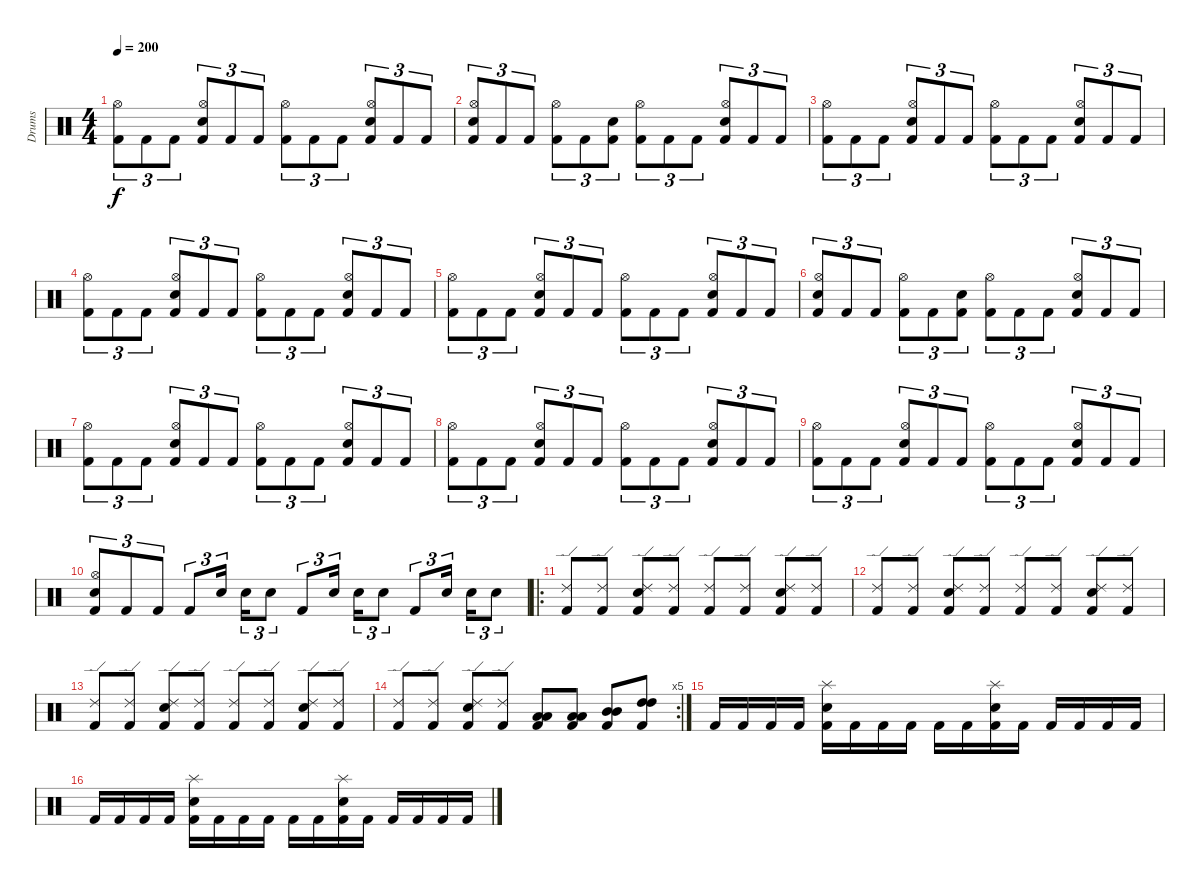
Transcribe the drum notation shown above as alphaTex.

\track ("Drums" "Drums") {instrument percussion}
\staff {score}
\articulation defaults
\ts (4 4)
\tempo 200
\clef neutral
\ks c
("Kick (hit) 2" "Hi-Hat (open)").8{tu (3 2) dy f} "Kick (hit) 2".8{tu (3 2)} "Kick (hit) 2".8{tu (3 2)} ("Kick (hit) 2" "Snare (hit) 2" "Hi-Hat (open)").8{tu (3 2)} "Kick (hit) 2".8{tu (3 2)} "Kick (hit) 2".8{tu (3 2)} ("Kick (hit) 2" "Hi-Hat (open)").8{tu (3 2)} "Kick (hit) 2".8{tu (3 2)} "Kick (hit) 2".8{tu (3 2)} ("Kick (hit) 2" "Snare (hit) 2" "Hi-Hat (open)").8{tu (3 2)} "Kick (hit) 2".8{tu (3 2)} "Kick (hit) 2".8{tu (3 2)} |
("Kick (hit) 2" "Snare (hit) 2" "Hi-Hat (open)").8{tu (3 2)} "Kick (hit) 2".8{tu (3 2)} "Kick (hit) 2".8{tu (3 2)} ("Kick (hit) 2" "Hi-Hat (open)").8{tu (3 2)} "Kick (hit) 2".8{tu (3 2)} ("Kick (hit) 2" "Snare (hit) 2").8{tu (3 2)} ("Kick (hit) 2" "Hi-Hat (open)").8{tu (3 2)} "Kick (hit) 2".8{tu (3 2)} "Kick (hit) 2".8{tu (3 2)} ("Kick (hit) 2" "Snare (hit) 2" "Hi-Hat (open)").8{tu (3 2)} "Kick (hit) 2".8{tu (3 2)} "Kick (hit) 2".8{tu (3 2)} |
("Kick (hit) 2" "Hi-Hat (open)").8{tu (3 2)} "Kick (hit) 2".8{tu (3 2)} "Kick (hit) 2".8{tu (3 2)} ("Kick (hit) 2" "Snare (hit) 2" "Hi-Hat (open)").8{tu (3 2)} "Kick (hit) 2".8{tu (3 2)} "Kick (hit) 2".8{tu (3 2)} ("Kick (hit) 2" "Hi-Hat (open)").8{tu (3 2)} "Kick (hit) 2".8{tu (3 2)} "Kick (hit) 2".8{tu (3 2)} ("Kick (hit) 2" "Snare (hit) 2" "Hi-Hat (open)").8{tu (3 2)} "Kick (hit) 2".8{tu (3 2)} "Kick (hit) 2".8{tu (3 2)} |
("Kick (hit) 2" "Hi-Hat (open)").8{tu (3 2)} "Kick (hit) 2".8{tu (3 2)} "Kick (hit) 2".8{tu (3 2)} ("Kick (hit) 2" "Snare (hit) 2" "Hi-Hat (open)").8{tu (3 2)} "Kick (hit) 2".8{tu (3 2)} "Kick (hit) 2".8{tu (3 2)} ("Kick (hit) 2" "Hi-Hat (open)").8{tu (3 2)} "Kick (hit) 2".8{tu (3 2)} "Kick (hit) 2".8{tu (3 2)} ("Kick (hit) 2" "Snare (hit) 2" "Hi-Hat (open)").8{tu (3 2)} "Kick (hit) 2".8{tu (3 2)} "Kick (hit) 2".8{tu (3 2)} |
("Kick (hit) 2" "Hi-Hat (open)").8{tu (3 2)} "Kick (hit) 2".8{tu (3 2)} "Kick (hit) 2".8{tu (3 2)} ("Kick (hit) 2" "Snare (hit) 2" "Hi-Hat (open)").8{tu (3 2)} "Kick (hit) 2".8{tu (3 2)} "Kick (hit) 2".8{tu (3 2)} ("Kick (hit) 2" "Hi-Hat (open)").8{tu (3 2)} "Kick (hit) 2".8{tu (3 2)} "Kick (hit) 2".8{tu (3 2)} ("Kick (hit) 2" "Snare (hit) 2" "Hi-Hat (open)").8{tu (3 2)} "Kick (hit) 2".8{tu (3 2)} "Kick (hit) 2".8{tu (3 2)} |
("Kick (hit) 2" "Snare (hit) 2" "Hi-Hat (open)").8{tu (3 2)} "Kick (hit) 2".8{tu (3 2)} "Kick (hit) 2".8{tu (3 2)} ("Kick (hit) 2" "Hi-Hat (open)").8{tu (3 2)} "Kick (hit) 2".8{tu (3 2)} ("Kick (hit) 2" "Snare (hit) 2").8{tu (3 2)} ("Kick (hit) 2" "Hi-Hat (open)").8{tu (3 2)} "Kick (hit) 2".8{tu (3 2)} "Kick (hit) 2".8{tu (3 2)} ("Kick (hit) 2" "Snare (hit) 2" "Hi-Hat (open)").8{tu (3 2)} "Kick (hit) 2".8{tu (3 2)} "Kick (hit) 2".8{tu (3 2)} |
("Kick (hit) 2" "Hi-Hat (open)").8{tu (3 2)} "Kick (hit) 2".8{tu (3 2)} "Kick (hit) 2".8{tu (3 2)} ("Kick (hit) 2" "Snare (hit) 2" "Hi-Hat (open)").8{tu (3 2)} "Kick (hit) 2".8{tu (3 2)} "Kick (hit) 2".8{tu (3 2)} ("Kick (hit) 2" "Hi-Hat (open)").8{tu (3 2)} "Kick (hit) 2".8{tu (3 2)} "Kick (hit) 2".8{tu (3 2)} ("Kick (hit) 2" "Snare (hit) 2" "Hi-Hat (open)").8{tu (3 2)} "Kick (hit) 2".8{tu (3 2)} "Kick (hit) 2".8{tu (3 2)} |
("Kick (hit) 2" "Hi-Hat (open)").8{tu (3 2)} "Kick (hit) 2".8{tu (3 2)} "Kick (hit) 2".8{tu (3 2)} ("Kick (hit) 2" "Snare (hit) 2" "Hi-Hat (open)").8{tu (3 2)} "Kick (hit) 2".8{tu (3 2)} "Kick (hit) 2".8{tu (3 2)} ("Kick (hit) 2" "Hi-Hat (open)").8{tu (3 2)} "Kick (hit) 2".8{tu (3 2)} "Kick (hit) 2".8{tu (3 2)} ("Kick (hit) 2" "Snare (hit) 2" "Hi-Hat (open)").8{tu (3 2)} "Kick (hit) 2".8{tu (3 2)} "Kick (hit) 2".8{tu (3 2)} |
("Kick (hit) 2" "Hi-Hat (open)").8{tu (3 2)} "Kick (hit) 2".8{tu (3 2)} "Kick (hit) 2".8{tu (3 2)} ("Kick (hit) 2" "Snare (hit) 2" "Hi-Hat (open)").8{tu (3 2)} "Kick (hit) 2".8{tu (3 2)} "Kick (hit) 2".8{tu (3 2)} ("Kick (hit) 2" "Hi-Hat (open)").8{tu (3 2)} "Kick (hit) 2".8{tu (3 2)} "Kick (hit) 2".8{tu (3 2)} ("Kick (hit) 2" "Snare (hit) 2" "Hi-Hat (open)").8{tu (3 2)} "Kick (hit) 2".8{tu (3 2)} "Kick (hit) 2".8{tu (3 2)} |
("Kick (hit) 2" "Snare (hit) 2" "Hi-Hat (open)").8{tu (3 2)} "Kick (hit) 2".8{tu (3 2)} "Kick (hit) 2".8{tu (3 2)} "Kick (hit) 2".8{tu (3 2)} "Snare (hit) 2".16{tu (3 2)} "Snare (hit) 2".16{tu (3 2)} "Snare (hit) 2".8{tu (3 2)} "Kick (hit) 2".8{tu (3 2)} "Snare (hit) 2".16{tu (3 2)} "Snare (hit) 2".16{tu (3 2)} "Snare (hit) 2".8{tu (3 2)} "Kick (hit) 2".8{tu (3 2)} "Snare (hit) 2".16{tu (3 2)} "Snare (hit) 2".16{tu (3 2)} "Snare (hit) 2".8{tu (3 2)} |
\ro
("Kick (hit) 2" "Ride (edge) 2").8 ("Kick (hit) 2" "Ride (edge) 2").8 ("Kick (hit) 2" "Snare (hit) 2" "Ride (edge) 2").8 ("Kick (hit) 2" "Ride (edge) 2").8 ("Kick (hit) 2" "Ride (edge) 2").8 ("Kick (hit) 2" "Ride (edge) 2").8 ("Kick (hit) 2" "Snare (hit) 2" "Ride (edge) 2").8 ("Kick (hit) 2" "Ride (edge) 2").8 |
("Kick (hit) 2" "Ride (edge) 2").8 ("Kick (hit) 2" "Ride (edge) 2").8 ("Kick (hit) 2" "Snare (hit) 2" "Ride (edge) 2").8 ("Kick (hit) 2" "Ride (edge) 2").8 ("Kick (hit) 2" "Ride (edge) 2").8 ("Kick (hit) 2" "Ride (edge) 2").8 ("Kick (hit) 2" "Snare (hit) 2" "Ride (edge) 2").8 ("Kick (hit) 2" "Ride (edge) 2").8 |
("Kick (hit) 2" "Ride (edge) 2").8 ("Kick (hit) 2" "Ride (edge) 2").8 ("Kick (hit) 2" "Snare (hit) 2" "Ride (edge) 2").8 ("Kick (hit) 2" "Ride (edge) 2").8 ("Kick (hit) 2" "Ride (edge) 2").8 ("Kick (hit) 2" "Ride (edge) 2").8 ("Kick (hit) 2" "Snare (hit) 2" "Ride (edge) 2").8 ("Kick (hit) 2" "Ride (edge) 2").8 |
\rc 5
("Kick (hit) 2" "Ride (edge) 2").8 ("Kick (hit) 2" "Ride (edge) 2").8 ("Kick (hit) 2" "Snare (hit) 2" "Ride (edge) 2").8 ("Kick (hit) 2" "Ride (edge) 2").8 ("Kick (hit) 2" "Low Tom (hit)" "Low Tom (hit)").8 ("Kick (hit) 2" "Low Tom (hit)" "Low Tom (hit)").8 ("Kick (hit) 2" "Mid Tom (hit)" "Mid Tom (hit)").8 ("Kick (hit) 2" "High Tom (hit)" "High Tom (hit)").8 |
"Kick (hit) 2".16 "Kick (hit) 2".16 "Kick (hit) 2".16 "Kick (hit) 2".16 ("Kick (hit) 2" "Snare (hit) 2" "Splash (hit)").16 "Kick (hit) 2".16 "Kick (hit) 2".16 "Kick (hit) 2".16 "Kick (hit) 2".16 "Kick (hit) 2".16 ("Kick (hit) 2" "Snare (hit) 2" "Splash (hit)").16 "Kick (hit) 2".16 "Kick (hit) 2".16 "Kick (hit) 2".16 "Kick (hit) 2".16 "Kick (hit) 2".16 |
"Kick (hit) 2".16 "Kick (hit) 2".16 "Kick (hit) 2".16 "Kick (hit) 2".16 ("Kick (hit) 2" "Snare (hit) 2" "Splash (hit)").16 "Kick (hit) 2".16 "Kick (hit) 2".16 "Kick (hit) 2".16 "Kick (hit) 2".16 "Kick (hit) 2".16 ("Kick (hit) 2" "Snare (hit) 2" "Splash (hit)").16 "Kick (hit) 2".16 "Kick (hit) 2".16 "Kick (hit) 2".16 "Kick (hit) 2".16 "Kick (hit) 2".16
